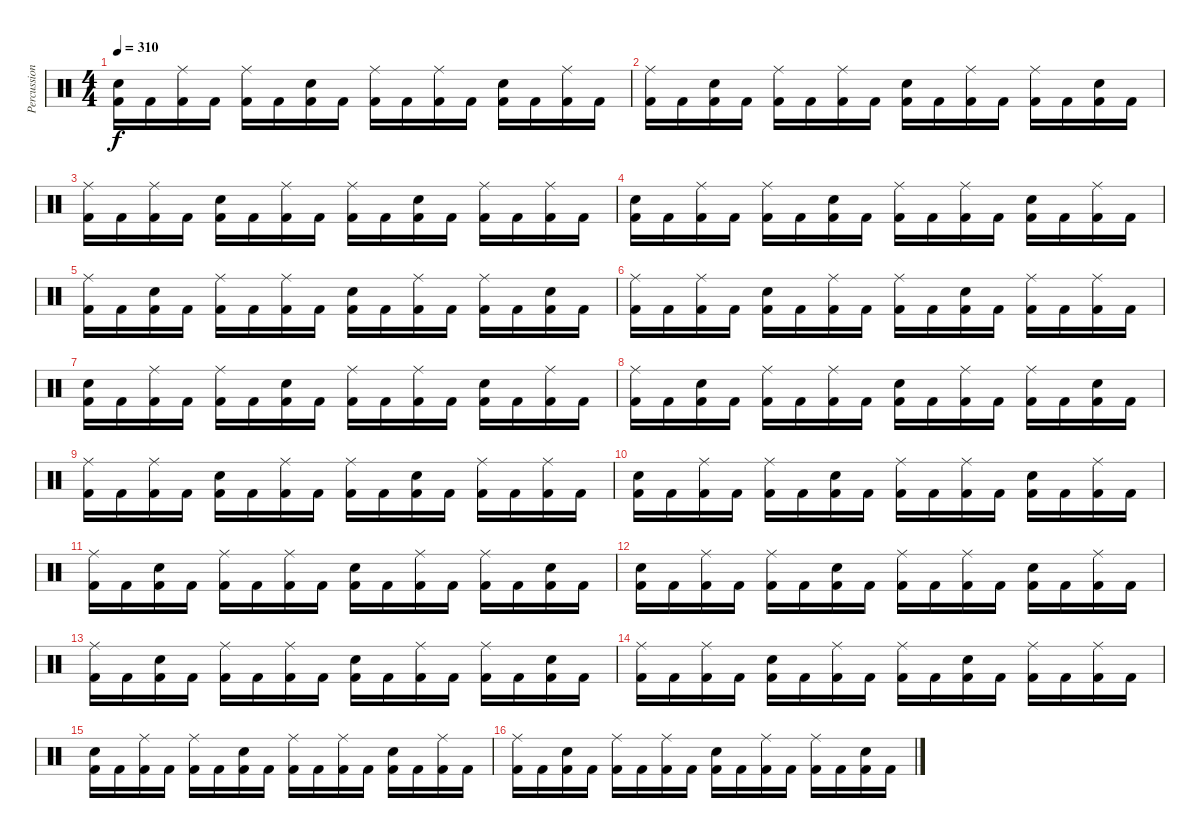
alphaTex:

\track ("Percussions" "Percussion") {instrument percussion}
\staff {score}
\articulation defaults
\ts (4 4)
\tempo 310
\clef neutral
\ks c
("Snare (hit) 2" "Kick (hit) 2").16{dy f} "Kick (hit) 2".16 ("Ride (middle)" "Kick (hit) 2").16 "Kick (hit) 2".16 ("Ride (middle)" "Kick (hit) 2").16 "Kick (hit) 2".16 ("Snare (hit) 2" "Kick (hit) 2").16 "Kick (hit) 2".16 ("Ride (middle)" "Kick (hit) 2").16 "Kick (hit) 2".16 ("Ride (middle)" "Kick (hit) 2").16 "Kick (hit) 2".16 ("Snare (hit) 2" "Kick (hit) 2").16 "Kick (hit) 2".16 ("Ride (middle)" "Kick (hit) 2").16 "Kick (hit) 2".16 |
("Ride (middle)" "Kick (hit) 2").16 "Kick (hit) 2".16 ("Snare (hit) 2" "Kick (hit) 2").16 "Kick (hit) 2".16 ("Ride (middle)" "Kick (hit) 2").16 "Kick (hit) 2".16 ("Ride (middle)" "Kick (hit) 2").16 "Kick (hit) 2".16 ("Snare (hit) 2" "Kick (hit) 2").16 "Kick (hit) 2".16 ("Ride (middle)" "Kick (hit) 2").16 "Kick (hit) 2".16 ("Ride (middle)" "Kick (hit) 2").16 "Kick (hit) 2".16 ("Snare (hit) 2" "Kick (hit) 2").16 "Kick (hit) 2".16 |
("Ride (middle)" "Kick (hit) 2").16 "Kick (hit) 2".16 ("Ride (middle)" "Kick (hit) 2").16 "Kick (hit) 2".16 ("Snare (hit) 2" "Kick (hit) 2").16 "Kick (hit) 2".16 ("Ride (middle)" "Kick (hit) 2").16 "Kick (hit) 2".16 ("Ride (middle)" "Kick (hit) 2").16 "Kick (hit) 2".16 ("Snare (hit) 2" "Kick (hit) 2").16 "Kick (hit) 2".16 ("Ride (middle)" "Kick (hit) 2").16 "Kick (hit) 2".16 ("Ride (middle)" "Kick (hit) 2").16 "Kick (hit) 2".16 |
("Snare (hit) 2" "Kick (hit) 2").16 "Kick (hit) 2".16 ("Ride (middle)" "Kick (hit) 2").16 "Kick (hit) 2".16 ("Ride (middle)" "Kick (hit) 2").16 "Kick (hit) 2".16 ("Snare (hit) 2" "Kick (hit) 2").16 "Kick (hit) 2".16 ("Ride (middle)" "Kick (hit) 2").16 "Kick (hit) 2".16 ("Ride (middle)" "Kick (hit) 2").16 "Kick (hit) 2".16 ("Snare (hit) 2" "Kick (hit) 2").16 "Kick (hit) 2".16 ("Ride (middle)" "Kick (hit) 2").16 "Kick (hit) 2".16 |
("Ride (middle)" "Kick (hit) 2").16 "Kick (hit) 2".16 ("Snare (hit) 2" "Kick (hit) 2").16 "Kick (hit) 2".16 ("Ride (middle)" "Kick (hit) 2").16 "Kick (hit) 2".16 ("Ride (middle)" "Kick (hit) 2").16 "Kick (hit) 2".16 ("Snare (hit) 2" "Kick (hit) 2").16 "Kick (hit) 2".16 ("Ride (middle)" "Kick (hit) 2").16 "Kick (hit) 2".16 ("Ride (middle)" "Kick (hit) 2").16 "Kick (hit) 2".16 ("Snare (hit) 2" "Kick (hit) 2").16 "Kick (hit) 2".16 |
("Ride (middle)" "Kick (hit) 2").16 "Kick (hit) 2".16 ("Ride (middle)" "Kick (hit) 2").16 "Kick (hit) 2".16 ("Snare (hit) 2" "Kick (hit) 2").16 "Kick (hit) 2".16 ("Ride (middle)" "Kick (hit) 2").16 "Kick (hit) 2".16 ("Ride (middle)" "Kick (hit) 2").16 "Kick (hit) 2".16 ("Snare (hit) 2" "Kick (hit) 2").16 "Kick (hit) 2".16 ("Ride (middle)" "Kick (hit) 2").16 "Kick (hit) 2".16 ("Ride (middle)" "Kick (hit) 2").16 "Kick (hit) 2".16 |
("Snare (hit) 2" "Kick (hit) 2").16 "Kick (hit) 2".16 ("Ride (middle)" "Kick (hit) 2").16 "Kick (hit) 2".16 ("Ride (middle)" "Kick (hit) 2").16 "Kick (hit) 2".16 ("Snare (hit) 2" "Kick (hit) 2").16 "Kick (hit) 2".16 ("Ride (middle)" "Kick (hit) 2").16 "Kick (hit) 2".16 ("Ride (middle)" "Kick (hit) 2").16 "Kick (hit) 2".16 ("Snare (hit) 2" "Kick (hit) 2").16 "Kick (hit) 2".16 ("Ride (middle)" "Kick (hit) 2").16 "Kick (hit) 2".16 |
("Ride (middle)" "Kick (hit) 2").16 "Kick (hit) 2".16 ("Snare (hit) 2" "Kick (hit) 2").16 "Kick (hit) 2".16 ("Ride (middle)" "Kick (hit) 2").16 "Kick (hit) 2".16 ("Ride (middle)" "Kick (hit) 2").16 "Kick (hit) 2".16 ("Snare (hit) 2" "Kick (hit) 2").16 "Kick (hit) 2".16 ("Ride (middle)" "Kick (hit) 2").16 "Kick (hit) 2".16 ("Ride (middle)" "Kick (hit) 2").16 "Kick (hit) 2".16 ("Snare (hit) 2" "Kick (hit) 2").16 "Kick (hit) 2".16 |
("Ride (middle)" "Kick (hit) 2").16 "Kick (hit) 2".16 ("Ride (middle)" "Kick (hit) 2").16 "Kick (hit) 2".16 ("Snare (hit) 2" "Kick (hit) 2").16 "Kick (hit) 2".16 ("Ride (middle)" "Kick (hit) 2").16 "Kick (hit) 2".16 ("Ride (middle)" "Kick (hit) 2").16 "Kick (hit) 2".16 ("Snare (hit) 2" "Kick (hit) 2").16 "Kick (hit) 2".16 ("Ride (middle)" "Kick (hit) 2").16 "Kick (hit) 2".16 ("Ride (middle)" "Kick (hit) 2").16 "Kick (hit) 2".16 |
("Snare (hit) 2" "Kick (hit) 2").16 "Kick (hit) 2".16 ("Ride (middle)" "Kick (hit) 2").16 "Kick (hit) 2".16 ("Ride (middle)" "Kick (hit) 2").16 "Kick (hit) 2".16 ("Snare (hit) 2" "Kick (hit) 2").16 "Kick (hit) 2".16 ("Ride (middle)" "Kick (hit) 2").16 "Kick (hit) 2".16 ("Ride (middle)" "Kick (hit) 2").16 "Kick (hit) 2".16 ("Snare (hit) 2" "Kick (hit) 2").16 "Kick (hit) 2".16 ("Ride (middle)" "Kick (hit) 2").16 "Kick (hit) 2".16 |
("Ride (middle)" "Kick (hit) 2").16 "Kick (hit) 2".16 ("Snare (hit) 2" "Kick (hit) 2").16 "Kick (hit) 2".16 ("Ride (middle)" "Kick (hit) 2").16 "Kick (hit) 2".16 ("Ride (middle)" "Kick (hit) 2").16 "Kick (hit) 2".16 ("Snare (hit) 2" "Kick (hit) 2").16 "Kick (hit) 2".16 ("Ride (middle)" "Kick (hit) 2").16 "Kick (hit) 2".16 ("Ride (middle)" "Kick (hit) 2").16 "Kick (hit) 2".16 ("Snare (hit) 2" "Kick (hit) 2").16 "Kick (hit) 2".16 |
("Snare (hit) 2" "Kick (hit) 2").16 "Kick (hit) 2".16 ("Ride (middle)" "Kick (hit) 2").16 "Kick (hit) 2".16 ("Ride (middle)" "Kick (hit) 2").16 "Kick (hit) 2".16 ("Snare (hit) 2" "Kick (hit) 2").16 "Kick (hit) 2".16 ("Ride (middle)" "Kick (hit) 2").16 "Kick (hit) 2".16 ("Ride (middle)" "Kick (hit) 2").16 "Kick (hit) 2".16 ("Snare (hit) 2" "Kick (hit) 2").16 "Kick (hit) 2".16 ("Ride (middle)" "Kick (hit) 2").16 "Kick (hit) 2".16 |
("Ride (middle)" "Kick (hit) 2").16 "Kick (hit) 2".16 ("Snare (hit) 2" "Kick (hit) 2").16 "Kick (hit) 2".16 ("Ride (middle)" "Kick (hit) 2").16 "Kick (hit) 2".16 ("Ride (middle)" "Kick (hit) 2").16 "Kick (hit) 2".16 ("Snare (hit) 2" "Kick (hit) 2").16 "Kick (hit) 2".16 ("Ride (middle)" "Kick (hit) 2").16 "Kick (hit) 2".16 ("Ride (middle)" "Kick (hit) 2").16 "Kick (hit) 2".16 ("Snare (hit) 2" "Kick (hit) 2").16 "Kick (hit) 2".16 |
("Ride (middle)" "Kick (hit) 2").16 "Kick (hit) 2".16 ("Ride (middle)" "Kick (hit) 2").16 "Kick (hit) 2".16 ("Snare (hit) 2" "Kick (hit) 2").16 "Kick (hit) 2".16 ("Ride (middle)" "Kick (hit) 2").16 "Kick (hit) 2".16 ("Ride (middle)" "Kick (hit) 2").16 "Kick (hit) 2".16 ("Snare (hit) 2" "Kick (hit) 2").16 "Kick (hit) 2".16 ("Ride (middle)" "Kick (hit) 2").16 "Kick (hit) 2".16 ("Ride (middle)" "Kick (hit) 2").16 "Kick (hit) 2".16 |
("Snare (hit) 2" "Kick (hit) 2").16 "Kick (hit) 2".16 ("Ride (middle)" "Kick (hit) 2").16 "Kick (hit) 2".16 ("Ride (middle)" "Kick (hit) 2").16 "Kick (hit) 2".16 ("Snare (hit) 2" "Kick (hit) 2").16 "Kick (hit) 2".16 ("Ride (middle)" "Kick (hit) 2").16 "Kick (hit) 2".16 ("Ride (middle)" "Kick (hit) 2").16 "Kick (hit) 2".16 ("Snare (hit) 2" "Kick (hit) 2").16 "Kick (hit) 2".16 ("Ride (middle)" "Kick (hit) 2").16 "Kick (hit) 2".16 |
("Ride (middle)" "Kick (hit) 2").16 "Kick (hit) 2".16 ("Snare (hit) 2" "Kick (hit) 2").16 "Kick (hit) 2".16 ("Ride (middle)" "Kick (hit) 2").16 "Kick (hit) 2".16 ("Ride (middle)" "Kick (hit) 2").16 "Kick (hit) 2".16 ("Snare (hit) 2" "Kick (hit) 2").16 "Kick (hit) 2".16 ("Ride (middle)" "Kick (hit) 2").16 "Kick (hit) 2".16 ("Ride (middle)" "Kick (hit) 2").16 "Kick (hit) 2".16 ("Snare (hit) 2" "Kick (hit) 2").16 "Kick (hit) 2".16
